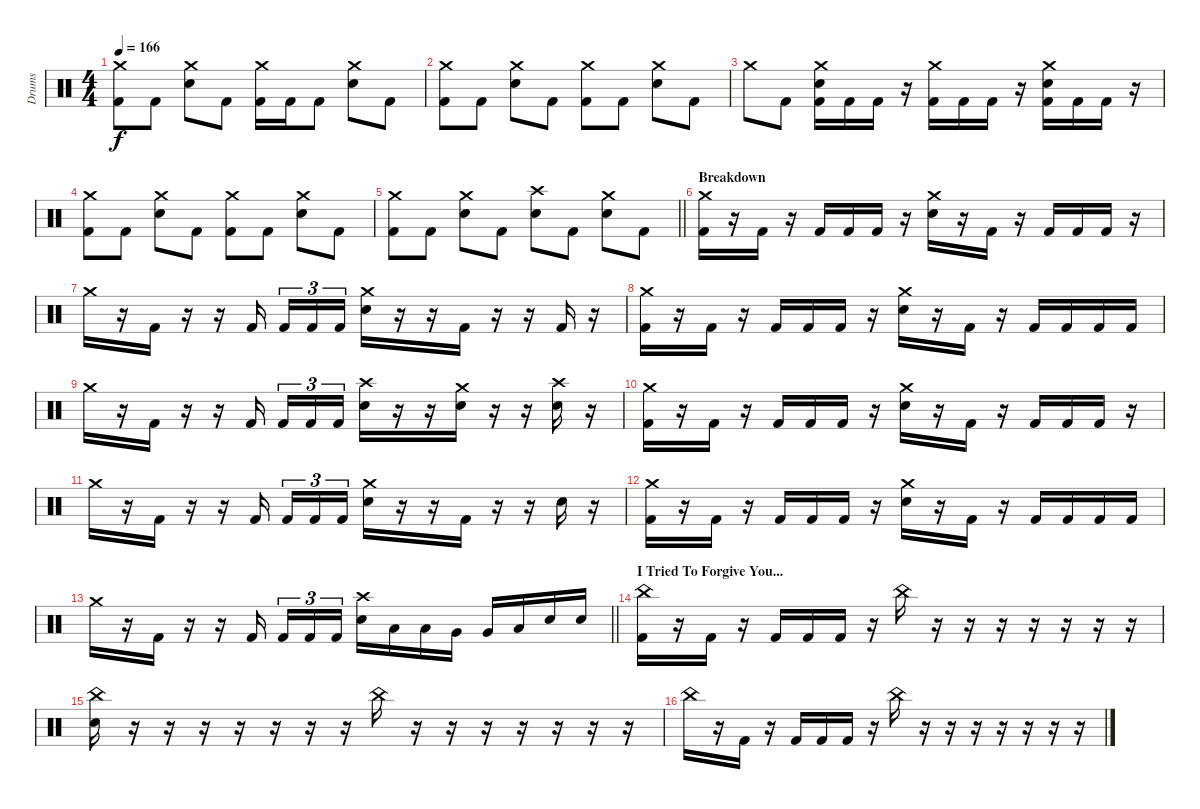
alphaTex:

\track ("Drums" "Drums") {instrument percussion}
\staff {score}
\articulation defaults
\ts (4 4)
\tempo 166
\clef neutral
\ks c
("Crash medium (hit)" "Kick (hit) 2").8{dy f} "Kick (hit) 2".8 ("Crash medium (hit)" "Electric Snare (hit)").8 "Kick (hit) 2".8 ("Crash medium (hit)" "Kick (hit) 2").16 "Kick (hit) 2".16 "Kick (hit) 2".8 ("Crash medium (hit)" "Electric Snare (hit)").8 "Kick (hit) 2".8 |
("Crash medium (hit)" "Kick (hit) 2").8 "Kick (hit) 2".8 ("Crash medium (hit)" "Electric Snare (hit)").8 "Kick (hit) 2".8 ("Crash medium (hit)" "Kick (hit) 2").8 "Kick (hit) 2".8 ("Crash medium (hit)" "Electric Snare (hit)").8 "Kick (hit) 2".8 |
"Crash medium (hit)".8 "Kick (hit) 2".8 ("Crash medium (hit)" "Electric Snare (hit)" "Kick (hit) 2").16 "Kick (hit) 2".16 "Kick (hit) 2".16 r.16 ("Crash medium (hit)" "Kick (hit) 2").16 "Kick (hit) 2".16 "Kick (hit) 2".16 r.16 ("Crash medium (hit)" "Electric Snare (hit)" "Kick (hit) 2").16 "Kick (hit) 2".16 "Kick (hit) 2".16 r.16 |
("Crash medium (hit)" "Kick (hit) 2").8 "Kick (hit) 2".8 ("Crash medium (hit)" "Electric Snare (hit)").8 "Kick (hit) 2".8 ("Crash medium (hit)" "Kick (hit) 2").8 "Kick (hit) 2".8 ("Crash medium (hit)" "Electric Snare (hit)").8 "Kick (hit) 2".8 |
\barLineRight lightlight
("Crash medium (hit)" "Kick (hit) 2").8 "Kick (hit) 2".8 ("Crash medium (hit)" "Electric Snare (hit)").8 "Kick (hit) 2".8 ("Crash high (hit)" "Electric Snare (hit)").8 "Kick (hit) 2".8 ("Crash medium (hit)" "Electric Snare (hit)").8 "Kick (hit) 2".8 |
\section ("" "Breakdown")
("Crash medium (hit)" "Kick (hit) 2").16 r.16 "Kick (hit) 2".16 r.16 "Kick (hit) 2".16 "Kick (hit) 2".16 "Kick (hit) 2".16 r.16 ("Crash medium (hit)" "Electric Snare (hit)").16 r.16 "Kick (hit) 2".16 r.16 "Kick (hit) 2".16 "Kick (hit) 2".16 "Kick (hit) 2".16 r.16 |
"Crash medium (hit)".16 r.16 "Kick (hit) 2".16 r.16 r.16 "Kick (hit) 2".16{beam splitsecondary} "Kick (hit) 2".16{tu (3 2)} "Kick (hit) 2".16{tu (3 2)} "Kick (hit) 2".16{tu (3 2)} ("Crash medium (hit)" "Electric Snare (hit)").16 r.16 r.16 "Kick (hit) 2".16 r.16 r.16 "Kick (hit) 2".16 r.16 |
("Crash medium (hit)" "Kick (hit) 2").16 r.16 "Kick (hit) 2".16 r.16 "Kick (hit) 2".16 "Kick (hit) 2".16 "Kick (hit) 2".16 r.16 ("Crash medium (hit)" "Electric Snare (hit)").16 r.16 "Kick (hit) 2".16 r.16 "Kick (hit) 2".16 "Kick (hit) 2".16 "Kick (hit) 2".16 "Kick (hit) 2".16 |
"Crash medium (hit)".16 r.16 "Kick (hit) 2".16 r.16 r.16 "Kick (hit) 2".16{beam splitsecondary} "Kick (hit) 2".16{tu (3 2)} "Kick (hit) 2".16{tu (3 2)} "Kick (hit) 2".16{tu (3 2)} ("Crash high (hit)" "Electric Snare (hit)").16 r.16 r.16 ("Crash medium (hit)" "Electric Snare (hit)").16 r.16 r.16 ("Crash high (hit)" "Electric Snare (hit)").16 r.16 |
("Crash medium (hit)" "Kick (hit) 2").16 r.16 "Kick (hit) 2".16 r.16 "Kick (hit) 2".16 "Kick (hit) 2".16 "Kick (hit) 2".16 r.16 ("Crash medium (hit)" "Electric Snare (hit)").16 r.16 "Kick (hit) 2".16 r.16 "Kick (hit) 2".16 "Kick (hit) 2".16 "Kick (hit) 2".16 r.16 |
"Crash medium (hit)".16 r.16 "Kick (hit) 2".16 r.16 r.16 "Kick (hit) 2".16{beam splitsecondary} "Kick (hit) 2".16{tu (3 2)} "Kick (hit) 2".16{tu (3 2)} "Kick (hit) 2".16{tu (3 2)} ("Crash medium (hit)" "Electric Snare (hit)").16 r.16 r.16 "Kick (hit) 2".16 r.16 r.16 "Electric Snare (hit)".16 r.16 |
("Crash medium (hit)" "Kick (hit) 2").16 r.16 "Kick (hit) 2".16 r.16 "Kick (hit) 2".16 "Kick (hit) 2".16 "Kick (hit) 2".16 r.16 ("Crash medium (hit)" "Electric Snare (hit)").16 r.16 "Kick (hit) 2".16 r.16 "Kick (hit) 2".16 "Kick (hit) 2".16 "Kick (hit) 2".16 "Kick (hit) 2".16 |
\barLineRight lightlight "Crash medium (hit)".16
r.16 "Kick (hit) 2".16 r.16 r.16 "Kick (hit) 2".16{beam splitsecondary} "Kick (hit) 2".16{tu (3 2)} "Kick (hit) 2".16{tu (3 2)} "Kick (hit) 2".16{tu (3 2)} ("Crash high (hit)" "Electric Snare (hit)").16 "Low Floor Tom (hit)".16 "Low Floor Tom (hit)".16 "Very Low Tom (hit)".16 "Very Low Tom (hit)".16 "Low Tom (hit)".16 "Electric Snare (hit)".16 "Electric Snare (hit)".16 |
\section ("" "I Tried To Forgive You...")
("China (hit)" "Kick (hit) 2").16 r.16 "Kick (hit) 2".16 r.16 "Kick (hit) 2".16 "Kick (hit) 2".16 "Kick (hit) 2".16 r.16 "China (hit)".16 r.16 r.16 r.16 r.16 r.16 r.16 r.16 |
("China (hit)" "Electric Snare (hit)").16 r.16 r.16 r.16 r.16 r.16 r.16 r.16 "China (hit)".16 r.16 r.16 r.16 r.16 r.16 r.16 r.16 |
"China (hit)".16 r.16 "Kick (hit) 2".16 r.16 "Kick (hit) 2".16 "Kick (hit) 2".16 "Kick (hit) 2".16 r.16 "China (hit)".16 r.16 r.16 r.16 r.16 r.16 r.16 r.16
